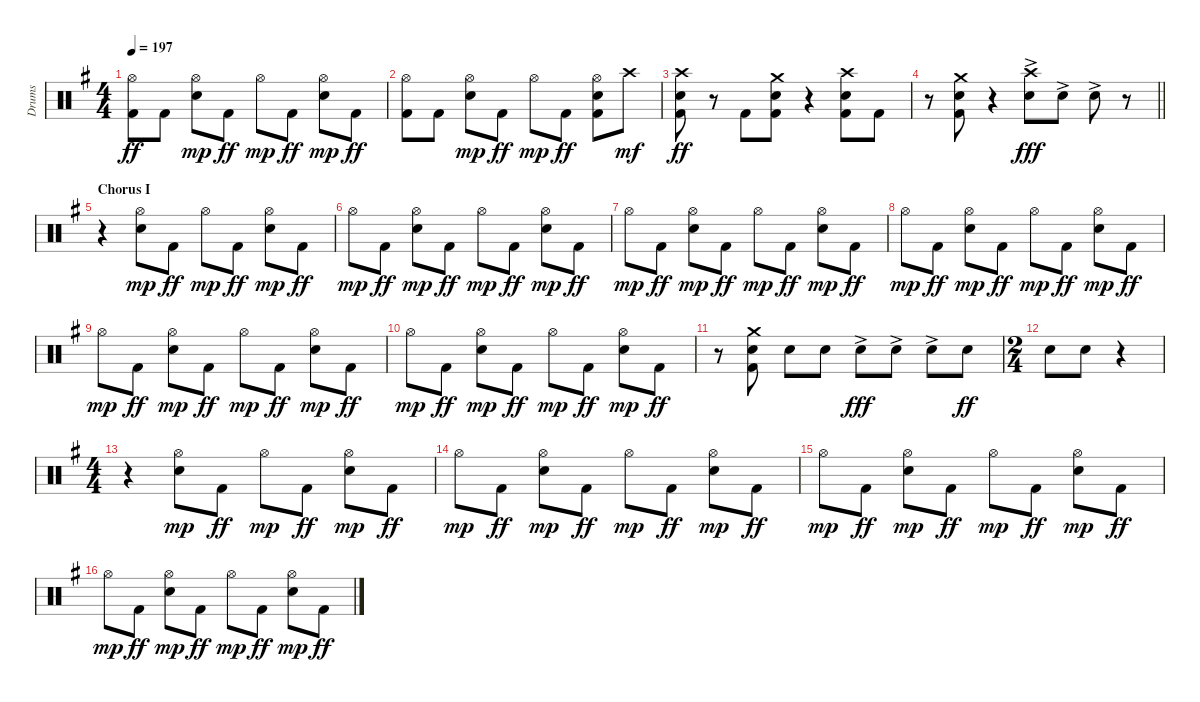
\track ("Drums" "Drums") {instrument percussion}
\staff {score}
\articulation defaults
\ts (4 4)
\tempo 197
\clef neutral
\ks g
("Hi-Hat (open)" "Kick (hit) 2").8{dy ff} "Kick (hit) 2".8 ("Hi-Hat (open)" "Snare (hit) 2").8{dy mp} "Kick (hit) 2".8{dy ff} "Hi-Hat (open)".8{dy mp} "Kick (hit) 2".8{dy ff} ("Hi-Hat (open)" "Snare (hit) 2").8{dy mp} "Kick (hit) 2".8{dy ff} |
("Hi-Hat (open)" "Kick (hit) 2").8 "Kick (hit) 2".8 ("Hi-Hat (open)" "Snare (hit) 2").8{dy mp} "Kick (hit) 2".8{dy ff} "Hi-Hat (open)".8{dy mp} "Kick (hit) 2".8{dy ff} ("Hi-Hat (open)" "Snare (hit) 2" "Kick (hit) 2").8 "Crash high (hit)".8{dy mf} |
("Crash high (hit)" "Snare (hit) 2" "Kick (hit) 2").8{dy ff} r.8 "Kick (hit) 2".8 ("Crash medium (hit)" "Snare (hit) 2" "Kick (hit) 2").8 r.4 ("Crash high (hit)" "Snare (hit) 2" "Kick (hit) 2").8 "Kick (hit) 2".8 |
\barLineRight lightlight
r.8 ("Crash medium (hit)" "Snare (hit) 2" "Kick (hit) 2").8 r.4 ("Crash high (hit)" "Snare (hit) 2"{ac}).8{dy fff} "Snare (hit) 2"{ac}.8 "Snare (hit) 2"{ac}.8 r.8 |
\section ("" "Chorus I")
r.4 ("Hi-Hat (open)" "Snare (hit) 2").8{dy mp} "Kick (hit) 2".8{dy ff} "Hi-Hat (open)".8{dy mp} "Kick (hit) 2".8{dy ff} ("Hi-Hat (open)" "Snare (hit) 2").8{dy mp} "Kick (hit) 2".8{dy ff} |
"Hi-Hat (open)".8{dy mp} "Kick (hit) 2".8{dy ff} ("Hi-Hat (open)" "Snare (hit) 2").8{dy mp} "Kick (hit) 2".8{dy ff} "Hi-Hat (open)".8{dy mp} "Kick (hit) 2".8{dy ff} ("Hi-Hat (open)" "Snare (hit) 2").8{dy mp} "Kick (hit) 2".8{dy ff} |
"Hi-Hat (open)".8{dy mp} "Kick (hit) 2".8{dy ff} ("Hi-Hat (open)" "Snare (hit) 2").8{dy mp} "Kick (hit) 2".8{dy ff} "Hi-Hat (open)".8{dy mp} "Kick (hit) 2".8{dy ff} ("Hi-Hat (open)" "Snare (hit) 2").8{dy mp} "Kick (hit) 2".8{dy ff} |
"Hi-Hat (open)".8{dy mp} "Kick (hit) 2".8{dy ff} ("Hi-Hat (open)" "Snare (hit) 2").8{dy mp} "Kick (hit) 2".8{dy ff} "Hi-Hat (open)".8{dy mp} "Kick (hit) 2".8{dy ff} ("Hi-Hat (open)" "Snare (hit) 2").8{dy mp} "Kick (hit) 2".8{dy ff} |
"Hi-Hat (open)".8{dy mp} "Kick (hit) 2".8{dy ff} ("Hi-Hat (open)" "Snare (hit) 2").8{dy mp} "Kick (hit) 2".8{dy ff} "Hi-Hat (open)".8{dy mp} "Kick (hit) 2".8{dy ff} ("Hi-Hat (open)" "Snare (hit) 2").8{dy mp} "Kick (hit) 2".8{dy ff} |
"Hi-Hat (open)".8{dy mp} "Kick (hit) 2".8{dy ff} ("Hi-Hat (open)" "Snare (hit) 2").8{dy mp} "Kick (hit) 2".8{dy ff} "Hi-Hat (open)".8{dy mp} "Kick (hit) 2".8{dy ff} ("Hi-Hat (open)" "Snare (hit) 2").8{dy mp} "Kick (hit) 2".8{dy ff} |
r.8 ("Crash medium (hit)" "Snare (hit) 2" "Kick (hit) 2").8 "Snare (hit) 2".8 "Hand Clap (hit)".8 "Snare (hit) 2"{ac}.8{dy fff} "Snare (hit) 2"{ac}.8 "Snare (hit) 2"{ac}.8 "Snare (hit) 2".8{dy ff} |
\ts (2 4)
"Snare (hit) 2".8 "Snare (hit) 2".8 r.4 |
\ts (4 4)
r.4 ("Hi-Hat (open)" "Snare (hit) 2").8{dy mp} "Kick (hit) 2".8{dy ff} "Hi-Hat (open)".8{dy mp} "Kick (hit) 2".8{dy ff} ("Hi-Hat (open)" "Snare (hit) 2").8{dy mp} "Kick (hit) 2".8{dy ff} |
"Hi-Hat (open)".8{dy mp} "Kick (hit) 2".8{dy ff} ("Hi-Hat (open)" "Snare (hit) 2").8{dy mp} "Kick (hit) 2".8{dy ff} "Hi-Hat (open)".8{dy mp} "Kick (hit) 2".8{dy ff} ("Hi-Hat (open)" "Snare (hit) 2").8{dy mp} "Kick (hit) 2".8{dy ff} |
"Hi-Hat (open)".8{dy mp} "Kick (hit) 2".8{dy ff} ("Hi-Hat (open)" "Snare (hit) 2").8{dy mp} "Kick (hit) 2".8{dy ff} "Hi-Hat (open)".8{dy mp} "Kick (hit) 2".8{dy ff} ("Hi-Hat (open)" "Snare (hit) 2").8{dy mp} "Kick (hit) 2".8{dy ff} |
"Hi-Hat (open)".8{dy mp} "Kick (hit) 2".8{dy ff} ("Hi-Hat (open)" "Snare (hit) 2").8{dy mp} "Kick (hit) 2".8{dy ff} "Hi-Hat (open)".8{dy mp} "Kick (hit) 2".8{dy ff} ("Hi-Hat (open)" "Snare (hit) 2").8{dy mp} "Kick (hit) 2".8{dy ff}
